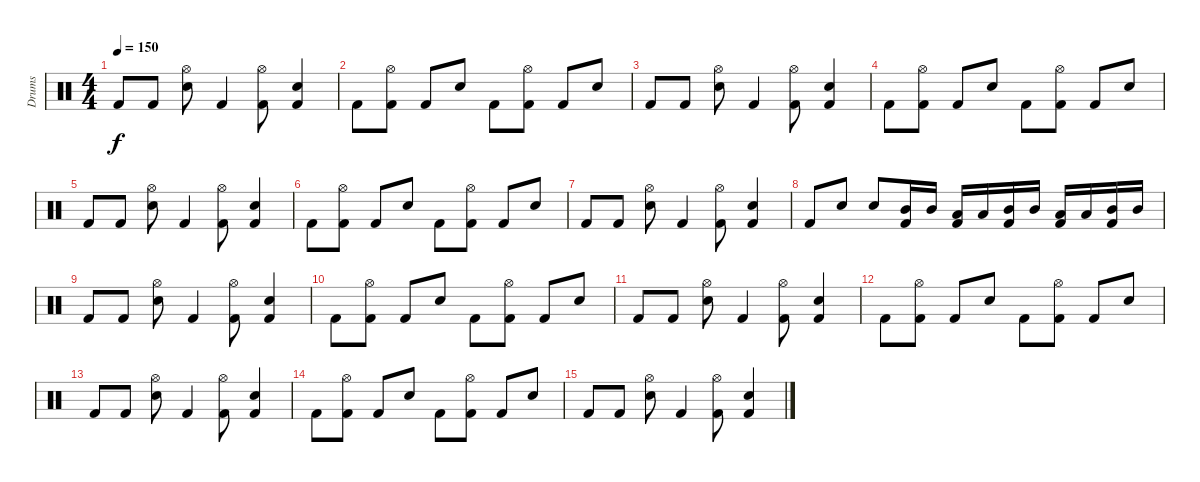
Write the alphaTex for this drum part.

\track ("Drums" "Drums") {instrument percussion}
\staff {score}
\articulation defaults
\ts (4 4)
\tempo 150
\clef neutral
\ks c "Kick (hit) 2".8{dy f} "Kick (hit) 2".8
("Hi-Hat (open)" "Snare (hit) 2").8 "Kick (hit) 2".4 ("Hi-Hat (open)" "Kick (hit) 2").8 ("Snare (hit) 2" "Kick (hit) 2").4 |
"Kick (hit) 2".8 ("Hi-Hat (open)" "Kick (hit) 2").8 "Kick (hit) 2".8 "Snare (hit) 2".8 "Kick (hit) 2".8 ("Hi-Hat (open)" "Kick (hit) 2").8 "Kick (hit) 2".8 "Snare (hit) 2".8 |
"Kick (hit) 2".8 "Kick (hit) 2".8 ("Hi-Hat (open)" "Snare (hit) 2").8 "Kick (hit) 2".4 ("Hi-Hat (open)" "Kick (hit) 2").8 ("Snare (hit) 2" "Kick (hit) 2").4 |
"Kick (hit) 2".8 ("Hi-Hat (open)" "Kick (hit) 2").8 "Kick (hit) 2".8 "Snare (hit) 2".8 "Kick (hit) 2".8 ("Hi-Hat (open)" "Kick (hit) 2").8 "Kick (hit) 2".8 "Snare (hit) 2".8 |
"Kick (hit) 2".8 "Kick (hit) 2".8 ("Hi-Hat (open)" "Snare (hit) 2").8 "Kick (hit) 2".4 ("Hi-Hat (open)" "Kick (hit) 2").8 ("Snare (hit) 2" "Kick (hit) 2").4 |
"Kick (hit) 2".8 ("Hi-Hat (open)" "Kick (hit) 2").8 "Kick (hit) 2".8 "Snare (hit) 2".8 "Kick (hit) 2".8 ("Hi-Hat (open)" "Kick (hit) 2").8 "Kick (hit) 2".8 "Snare (hit) 2".8 |
"Kick (hit) 2".8 "Kick (hit) 2".8 ("Hi-Hat (open)" "Snare (hit) 2").8 "Kick (hit) 2".4 ("Hi-Hat (open)" "Kick (hit) 2").8 ("Snare (hit) 2" "Kick (hit) 2").4 |
"Kick (hit) 2".8 "Snare (hit) 2".8 "Snare (hit) 2".8 ("Mid Tom (hit)" "Kick (hit) 2").16 "Mid Tom (hit)".16 ("Low Floor Tom (hit)" "Kick (hit) 2").16 "Low Floor Tom (hit)".16 ("Mid Tom (hit)" "Kick (hit) 2").16 "Mid Tom (hit)".16 ("Low Floor Tom (hit)" "Kick (hit) 2").16 "Low Floor Tom (hit)".16 ("Mid Tom (hit)" "Kick (hit) 2").16 "Mid Tom (hit)".16 |
"Kick (hit) 2".8 "Kick (hit) 2".8 ("Hi-Hat (open)" "Snare (hit) 2").8 "Kick (hit) 2".4 ("Hi-Hat (open)" "Kick (hit) 2").8 ("Snare (hit) 2" "Kick (hit) 2").4 |
"Kick (hit) 2".8 ("Hi-Hat (open)" "Kick (hit) 2").8 "Kick (hit) 2".8 "Snare (hit) 2".8 "Kick (hit) 2".8 ("Hi-Hat (open)" "Kick (hit) 2").8 "Kick (hit) 2".8 "Snare (hit) 2".8 |
"Kick (hit) 2".8 "Kick (hit) 2".8 ("Hi-Hat (open)" "Snare (hit) 2").8 "Kick (hit) 2".4 ("Hi-Hat (open)" "Kick (hit) 2").8 ("Snare (hit) 2" "Kick (hit) 2").4 |
"Kick (hit) 2".8 ("Hi-Hat (open)" "Kick (hit) 2").8 "Kick (hit) 2".8 "Snare (hit) 2".8 "Kick (hit) 2".8 ("Hi-Hat (open)" "Kick (hit) 2").8 "Kick (hit) 2".8 "Snare (hit) 2".8 |
"Kick (hit) 2".8 "Kick (hit) 2".8 ("Hi-Hat (open)" "Snare (hit) 2").8 "Kick (hit) 2".4 ("Hi-Hat (open)" "Kick (hit) 2").8 ("Snare (hit) 2" "Kick (hit) 2").4 |
"Kick (hit) 2".8 ("Hi-Hat (open)" "Kick (hit) 2").8 "Kick (hit) 2".8 "Snare (hit) 2".8 "Kick (hit) 2".8 ("Hi-Hat (open)" "Kick (hit) 2").8 "Kick (hit) 2".8 "Snare (hit) 2".8 |
"Kick (hit) 2".8 "Kick (hit) 2".8 ("Hi-Hat (open)" "Snare (hit) 2").8 "Kick (hit) 2".4 ("Hi-Hat (open)" "Kick (hit) 2").8 ("Snare (hit) 2" "Kick (hit) 2").4
